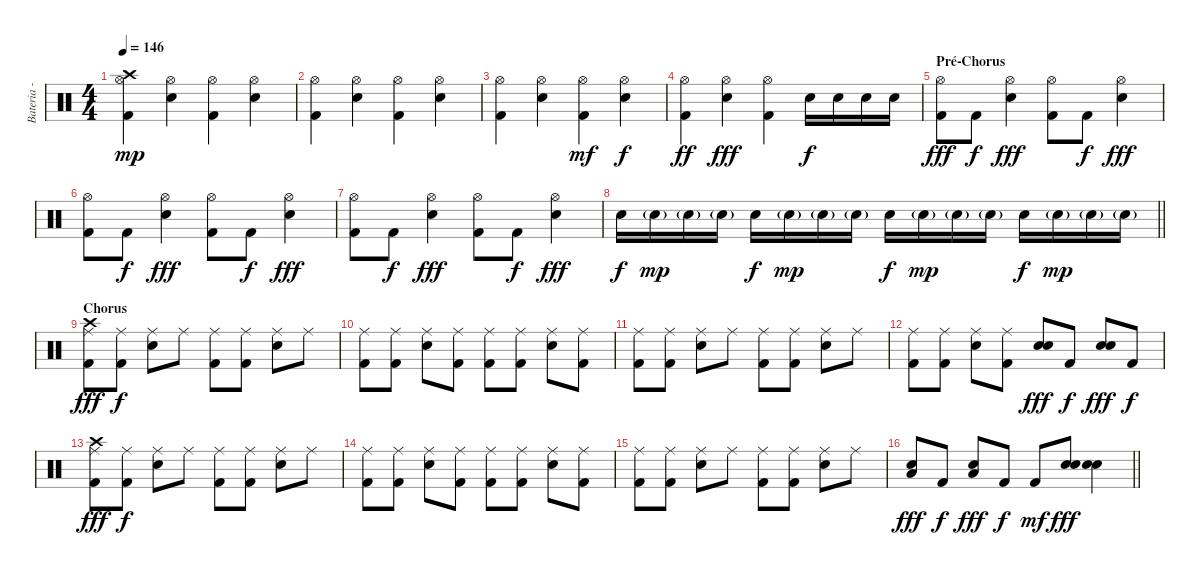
\track ("Bateria - Larzon" "Bateria - ") {instrument percussion}
\staff {score}
\articulation defaults
\ts (4 4)
\tempo 146
\clef neutral
\ks c
("Kick (hit) 2" "Hi-Hat (open)" "Crash high (hit)").4{dy mp} ("Electric Snare (hit)" "Hi-Hat (open)").4 ("Kick (hit) 2" "Hi-Hat (open)").4 ("Electric Snare (hit)" "Hi-Hat (open)").4 |
("Kick (hit) 2" "Hi-Hat (open)").4 ("Electric Snare (hit)" "Hi-Hat (open)").4 ("Kick (hit) 2" "Hi-Hat (open)").4 ("Electric Snare (hit)" "Hi-Hat (open)").4 |
("Kick (hit) 2" "Hi-Hat (open)").4 ("Electric Snare (hit)" "Hi-Hat (open)").4 ("Kick (hit) 2" "Hi-Hat (open)").4{dy mf} ("Electric Snare (hit)" "Hi-Hat (open)").4{dy f} |
("Kick (hit) 2" "Hi-Hat (open)").4{dy ff} ("Electric Snare (hit)" "Hi-Hat (open)").4{dy fff} ("Kick (hit) 2" "Hi-Hat (open)").4 "Electric Snare (hit)".16{dy f} "Electric Snare (hit)".16 "Electric Snare (hit)".16 "Electric Snare (hit)".16 |
\section ("" "Pré-Chorus")
("Kick (hit) 2" "Hi-Hat (open)").8{dy fff} "Kick (hit) 2".8{dy f} ("Electric Snare (hit)" "Hi-Hat (open)").4{dy fff} ("Kick (hit) 2" "Hi-Hat (open)").8 "Kick (hit) 2".8{dy f} ("Electric Snare (hit)" "Hi-Hat (open)").4{dy fff} |
("Kick (hit) 2" "Hi-Hat (open)").8 "Kick (hit) 2".8{dy f} ("Electric Snare (hit)" "Hi-Hat (open)").4{dy fff} ("Kick (hit) 2" "Hi-Hat (open)").8 "Kick (hit) 2".8{dy f} ("Electric Snare (hit)" "Hi-Hat (open)").4{dy fff} |
("Kick (hit) 2" "Hi-Hat (open)").8 "Kick (hit) 2".8{dy f} ("Electric Snare (hit)" "Hi-Hat (open)").4{dy fff} ("Kick (hit) 2" "Hi-Hat (open)").8 "Kick (hit) 2".8{dy f} ("Electric Snare (hit)" "Hi-Hat (open)").4{dy fff} |
\barLineRight lightlight "Electric Snare (hit)".16{dy f} "Electric Snare (hit)"{g}.16{dy mp} "Electric Snare (hit)"{g}.16 "Electric Snare (hit)"{g}.16 "Electric Snare (hit)".16{dy f} "Electric Snare (hit)"{g}.16{dy mp} "Electric Snare (hit)"{g}.16 "Electric Snare (hit)"{g}.16 "Electric Snare (hit)".16{dy f} "Electric Snare (hit)"{g}.16{dy mp} "Electric Snare (hit)"{g}.16 "Electric Snare (hit)"{g}.16 "Electric Snare (hit)".16{dy f} "Electric Snare (hit)"{g}.16{dy mp} "Electric Snare (hit)"{g}.16 "Electric Snare (hit)"{g}.16
|
\section ("" "Chorus")
("Kick (hit) 2" "Ride (middle)" "Crash high (hit)").8{dy fff} ("Kick (hit) 2" "Ride (middle)").8{dy f} ("Electric Snare (hit)" "Ride (middle)").8 "Ride (middle)".8 ("Kick (hit) 2" "Ride (middle)").8 ("Kick (hit) 2" "Ride (middle)").8 ("Electric Snare (hit)" "Ride (middle)").8 "Ride (middle)".8 |
("Kick (hit) 2" "Ride (middle)").8 ("Kick (hit) 2" "Ride (middle)").8 ("Electric Snare (hit)" "Ride (middle)").8 ("Kick (hit) 2" "Ride (middle)").8 ("Kick (hit) 2" "Ride (middle)").8 ("Kick (hit) 2" "Ride (middle)").8 ("Electric Snare (hit)" "Ride (middle)").8 ("Kick (hit) 2" "Ride (middle)").8 |
("Kick (hit) 2" "Ride (middle)").8 ("Kick (hit) 2" "Ride (middle)").8 ("Electric Snare (hit)" "Ride (middle)").8 "Ride (middle)".8 ("Kick (hit) 2" "Ride (middle)").8 ("Kick (hit) 2" "Ride (middle)").8 ("Electric Snare (hit)" "Ride (middle)").8 "Ride (middle)".8 |
("Kick (hit) 2" "Ride (middle)").8 ("Kick (hit) 2" "Ride (middle)").8 ("Electric Snare (hit)" "Ride (middle)").8 ("Kick (hit) 2" "Ride (middle)").8 ("Electric Snare (hit)" "Electric Snare (hit)").8{dy fff} "Kick (hit) 2".8{dy f} ("Electric Snare (hit)" "Electric Snare (hit)").8{dy fff} "Kick (hit) 2".8{dy f} |
("Kick (hit) 2" "Ride (middle)" "Crash high (hit)").8{dy fff} ("Kick (hit) 2" "Ride (middle)").8{dy f} ("Electric Snare (hit)" "Ride (middle)").8 "Ride (middle)".8 ("Kick (hit) 2" "Ride (middle)").8 ("Kick (hit) 2" "Ride (middle)").8 ("Electric Snare (hit)" "Ride (middle)").8 "Ride (middle)".8 |
("Kick (hit) 2" "Ride (middle)").8 ("Kick (hit) 2" "Ride (middle)").8 ("Electric Snare (hit)" "Ride (middle)").8 ("Kick (hit) 2" "Ride (middle)").8 ("Kick (hit) 2" "Ride (middle)").8 ("Kick (hit) 2" "Ride (middle)").8 ("Electric Snare (hit)" "Ride (middle)").8 ("Kick (hit) 2" "Ride (middle)").8 |
("Kick (hit) 2" "Ride (middle)").8 ("Kick (hit) 2" "Ride (middle)").8 ("Electric Snare (hit)" "Ride (middle)").8 "Ride (middle)".8 ("Kick (hit) 2" "Ride (middle)").8 ("Kick (hit) 2" "Ride (middle)").8 ("Electric Snare (hit)" "Ride (middle)").8 "Ride (middle)".8 |
\barLineRight lightlight
("Low Floor Tom (hit)" "Electric Snare (hit)").8{dy fff} "Kick (hit) 2".8{dy f} ("Low Floor Tom (hit)" "Electric Snare (hit)").8{dy fff} "Kick (hit) 2".8{dy f} "Kick (hit) 2".8{dy mf} ("Electric Snare (hit)" "Electric Snare (hit)").8{dy fff} ("Electric Snare (hit)" "Electric Snare (hit)").4
